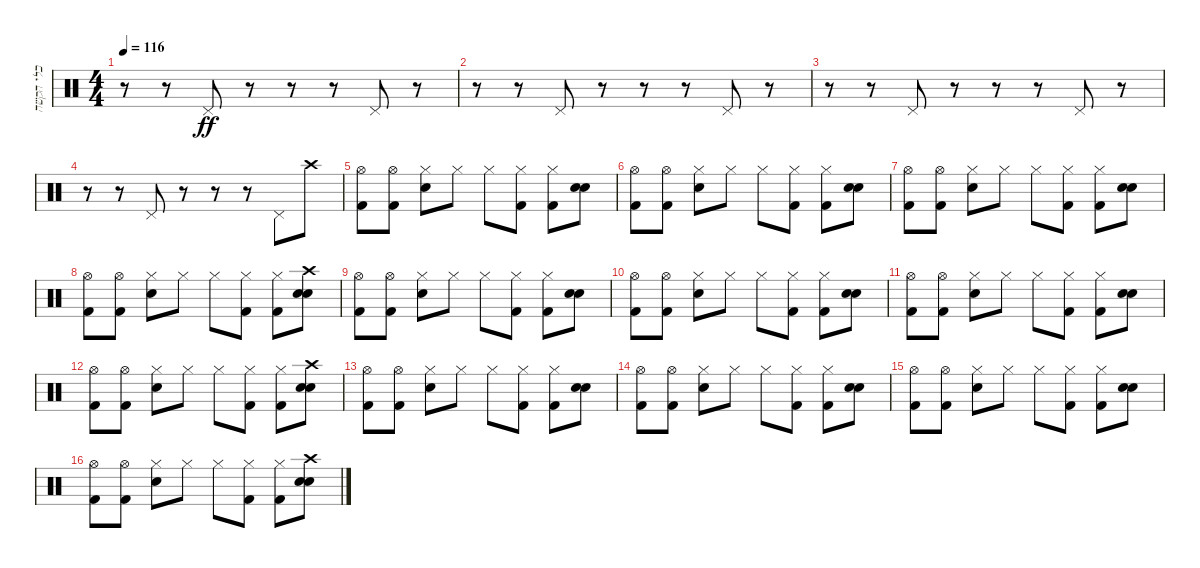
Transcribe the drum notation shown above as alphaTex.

\track ("כלי הקשה" "כלי הקשה") {instrument percussion}
\staff {score}
\articulation defaults
\ts (4 4)
\tempo 116
\clef neutral
\ks c
r.8{dy ff} r.8 "Pedal Hi-Hat (hit)".8 r.8 r.8 r.8 "Pedal Hi-Hat (hit)".8 r.8 |
r.8 r.8 "Pedal Hi-Hat (hit)".8 r.8 r.8 r.8 "Pedal Hi-Hat (hit)".8 r.8 |
r.8 r.8 "Pedal Hi-Hat (hit)".8 r.8 r.8 r.8 "Pedal Hi-Hat (hit)".8 r.8 |
r.8 r.8 "Pedal Hi-Hat (hit)".8 r.8 r.8 r.8 "Pedal Hi-Hat (hit)".8 "Crash high (hit)".8 |
("Hi-Hat (open)" "Kick (hit) 2").8 ("Hi-Hat (open)" "Kick (hit) 2").8 ("Hi-Hat (closed)" "Snare (hit) 2").8 "Hi-Hat (closed)".8 "Hi-Hat (closed)".8 ("Hi-Hat (closed)" "Kick (hit) 2").8 ("Hi-Hat (closed)" "Kick (hit) 2").8 ("Electric Snare (hit)" "Snare (hit) 2").8 |
("Hi-Hat (open)" "Kick (hit) 2").8 ("Hi-Hat (open)" "Kick (hit) 2").8 ("Hi-Hat (closed)" "Snare (hit) 2").8 "Hi-Hat (closed)".8 "Hi-Hat (closed)".8 ("Hi-Hat (closed)" "Kick (hit) 2").8 ("Hi-Hat (closed)" "Kick (hit) 2").8 ("Electric Snare (hit)" "Snare (hit) 2").8 |
("Hi-Hat (open)" "Kick (hit) 2").8 ("Hi-Hat (open)" "Kick (hit) 2").8 ("Hi-Hat (closed)" "Snare (hit) 2").8 "Hi-Hat (closed)".8 "Hi-Hat (closed)".8 ("Hi-Hat (closed)" "Kick (hit) 2").8 ("Hi-Hat (closed)" "Kick (hit) 2").8 ("Electric Snare (hit)" "Snare (hit) 2").8 |
("Hi-Hat (open)" "Kick (hit) 2").8 ("Hi-Hat (open)" "Kick (hit) 2").8 ("Hi-Hat (closed)" "Snare (hit) 2").8 "Hi-Hat (closed)".8 "Hi-Hat (closed)".8 ("Hi-Hat (closed)" "Kick (hit) 2").8 ("Hi-Hat (closed)" "Kick (hit) 2").8 ("Crash high (hit)" "Electric Snare (hit)" "Snare (hit) 2").8 |
("Hi-Hat (open)" "Kick (hit) 2").8 ("Hi-Hat (open)" "Kick (hit) 2").8 ("Hi-Hat (closed)" "Snare (hit) 2").8 "Hi-Hat (closed)".8 "Hi-Hat (closed)".8 ("Hi-Hat (closed)" "Kick (hit) 2").8 ("Hi-Hat (closed)" "Kick (hit) 2").8 ("Electric Snare (hit)" "Snare (hit) 2").8 |
("Hi-Hat (open)" "Kick (hit) 2").8 ("Hi-Hat (open)" "Kick (hit) 2").8 ("Hi-Hat (closed)" "Snare (hit) 2").8 "Hi-Hat (closed)".8 "Hi-Hat (closed)".8 ("Hi-Hat (closed)" "Kick (hit) 2").8 ("Hi-Hat (closed)" "Kick (hit) 2").8 ("Electric Snare (hit)" "Snare (hit) 2").8 |
("Hi-Hat (open)" "Kick (hit) 2").8 ("Hi-Hat (open)" "Kick (hit) 2").8 ("Hi-Hat (closed)" "Snare (hit) 2").8 "Hi-Hat (closed)".8 "Hi-Hat (closed)".8 ("Hi-Hat (closed)" "Kick (hit) 2").8 ("Hi-Hat (closed)" "Kick (hit) 2").8 ("Electric Snare (hit)" "Snare (hit) 2").8 |
("Hi-Hat (open)" "Kick (hit) 2").8 ("Hi-Hat (open)" "Kick (hit) 2").8 ("Hi-Hat (closed)" "Snare (hit) 2").8 "Hi-Hat (closed)".8 "Hi-Hat (closed)".8 ("Hi-Hat (closed)" "Kick (hit) 2").8 ("Hi-Hat (closed)" "Kick (hit) 2").8 ("Crash high (hit)" "Electric Snare (hit)" "Snare (hit) 2").8 |
("Hi-Hat (open)" "Kick (hit) 2").8 ("Hi-Hat (open)" "Kick (hit) 2").8 ("Hi-Hat (closed)" "Snare (hit) 2").8 "Hi-Hat (closed)".8 "Hi-Hat (closed)".8 ("Hi-Hat (closed)" "Kick (hit) 2").8 ("Hi-Hat (closed)" "Kick (hit) 2").8 ("Electric Snare (hit)" "Snare (hit) 2").8 |
("Hi-Hat (open)" "Kick (hit) 2").8 ("Hi-Hat (open)" "Kick (hit) 2").8 ("Hi-Hat (closed)" "Snare (hit) 2").8 "Hi-Hat (closed)".8 "Hi-Hat (closed)".8 ("Hi-Hat (closed)" "Kick (hit) 2").8 ("Hi-Hat (closed)" "Kick (hit) 2").8 ("Electric Snare (hit)" "Snare (hit) 2").8 |
("Hi-Hat (open)" "Kick (hit) 2").8 ("Hi-Hat (open)" "Kick (hit) 2").8 ("Hi-Hat (closed)" "Snare (hit) 2").8 "Hi-Hat (closed)".8 "Hi-Hat (closed)".8 ("Hi-Hat (closed)" "Kick (hit) 2").8 ("Hi-Hat (closed)" "Kick (hit) 2").8 ("Electric Snare (hit)" "Snare (hit) 2").8 |
("Hi-Hat (open)" "Kick (hit) 2").8 ("Hi-Hat (open)" "Kick (hit) 2").8 ("Hi-Hat (closed)" "Snare (hit) 2").8 "Hi-Hat (closed)".8 "Hi-Hat (closed)".8 ("Hi-Hat (closed)" "Kick (hit) 2").8 ("Hi-Hat (closed)" "Kick (hit) 2").8 ("Crash high (hit)" "Electric Snare (hit)" "Snare (hit) 2").8
